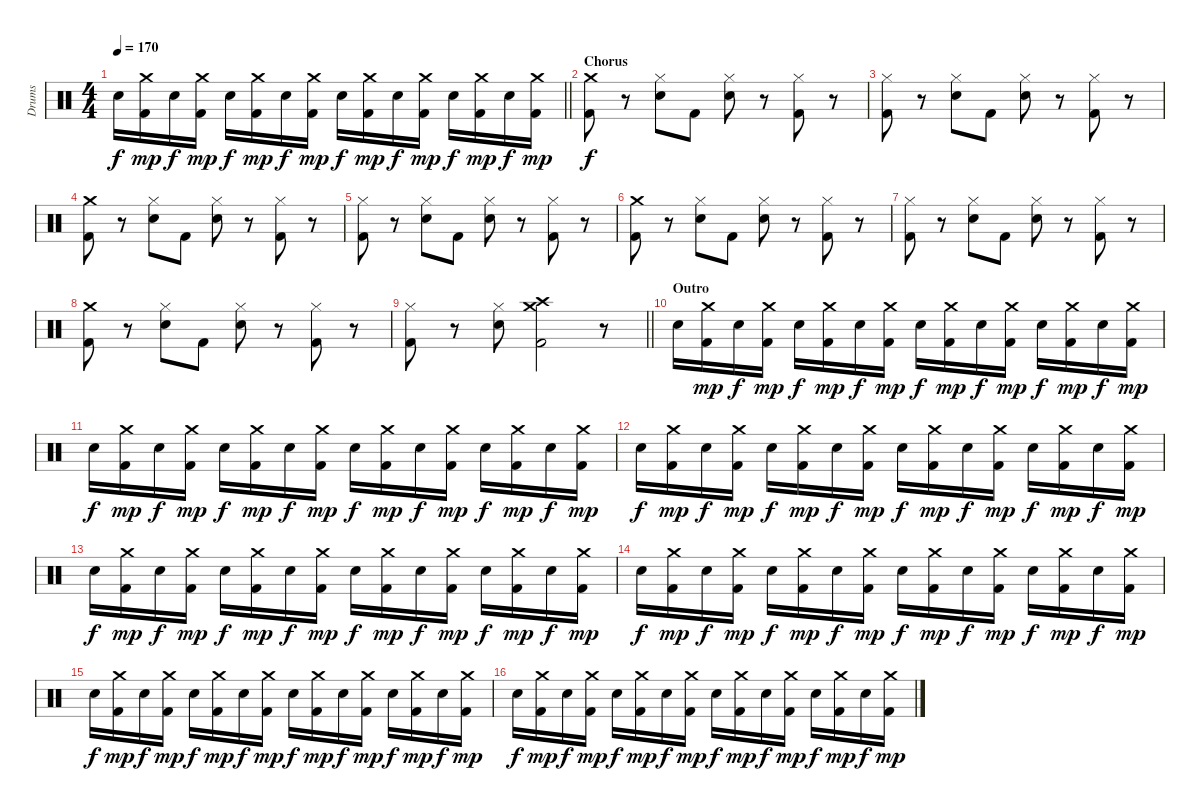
\track ("Drums" "Drums") {instrument percussion}
\staff {score}
\articulation defaults
\ts (4 4)
\tempo 170
\clef neutral
\barLineRight lightlight
\ks c "Snare (hit) 2".16{dy f}
("Kick (hit) 2" "Crash medium (hit)").16{dy mp} "Snare (hit) 2".16{dy f} ("Kick (hit) 2" "Crash medium (hit)").16{dy mp} "Snare (hit) 2".16{dy f} ("Kick (hit) 2" "Crash medium (hit)").16{dy mp} "Snare (hit) 2".16{dy f} ("Kick (hit) 2" "Crash medium (hit)").16{dy mp} "Snare (hit) 2".16{dy f} ("Kick (hit) 2" "Crash medium (hit)").16{dy mp} "Snare (hit) 2".16{dy f} ("Kick (hit) 2" "Crash medium (hit)").16{dy mp} "Snare (hit) 2".16{dy f} ("Kick (hit) 2" "Crash medium (hit)").16{dy mp} "Snare (hit) 2".16{dy f} ("Kick (hit) 2" "Crash medium (hit)").16{dy mp} |
\section ("" "Chorus")
("Kick (hit) 2" "Crash medium (hit)").8{dy f} r.8 ("Snare (hit) 2" "Hi-Hat (closed)").8 "Kick (hit) 2".8 ("Snare (hit) 2" "Hi-Hat (closed)").8 r.8 ("Kick (hit) 2" "Hi-Hat (closed)").8 r.8 |
("Kick (hit) 2" "Hi-Hat (closed)").8 r.8 ("Snare (hit) 2" "Hi-Hat (closed)").8 "Kick (hit) 2".8 ("Snare (hit) 2" "Hi-Hat (closed)").8 r.8 ("Kick (hit) 2" "Hi-Hat (closed)").8 r.8 |
("Kick (hit) 2" "Crash medium (hit)").8 r.8 ("Snare (hit) 2" "Hi-Hat (closed)").8 "Kick (hit) 2".8 ("Snare (hit) 2" "Hi-Hat (closed)").8 r.8 ("Kick (hit) 2" "Hi-Hat (closed)").8 r.8 |
("Kick (hit) 2" "Hi-Hat (closed)").8 r.8 ("Snare (hit) 2" "Hi-Hat (closed)").8 "Kick (hit) 2".8 ("Snare (hit) 2" "Hi-Hat (closed)").8 r.8 ("Kick (hit) 2" "Hi-Hat (closed)").8 r.8 |
("Kick (hit) 2" "Crash medium (hit)").8 r.8 ("Snare (hit) 2" "Hi-Hat (closed)").8 "Kick (hit) 2".8 ("Snare (hit) 2" "Hi-Hat (closed)").8 r.8 ("Kick (hit) 2" "Hi-Hat (closed)").8 r.8 |
("Kick (hit) 2" "Hi-Hat (closed)").8 r.8 ("Snare (hit) 2" "Hi-Hat (closed)").8 "Kick (hit) 2".8 ("Snare (hit) 2" "Hi-Hat (closed)").8 r.8 ("Kick (hit) 2" "Hi-Hat (closed)").8 r.8 |
("Kick (hit) 2" "Crash medium (hit)").8 r.8 ("Snare (hit) 2" "Hi-Hat (closed)").8 "Kick (hit) 2".8 ("Snare (hit) 2" "Hi-Hat (closed)").8 r.8 ("Kick (hit) 2" "Hi-Hat (closed)").8 r.8 |
\barLineRight lightlight
("Kick (hit) 2" "Hi-Hat (closed)").8 r.8 ("Snare (hit) 2" "Hi-Hat (closed)").8 ("Kick (hit) 2" "Crash medium (hit)" "Crash high (hit)").2 r.8 |
\section ("" "Outro")
"Snare (hit) 2".16 ("Kick (hit) 2" "Crash medium (hit)").16{dy mp} "Snare (hit) 2".16{dy f} ("Kick (hit) 2" "Crash medium (hit)").16{dy mp} "Snare (hit) 2".16{dy f} ("Kick (hit) 2" "Crash medium (hit)").16{dy mp} "Snare (hit) 2".16{dy f} ("Kick (hit) 2" "Crash medium (hit)").16{dy mp} "Snare (hit) 2".16{dy f} ("Kick (hit) 2" "Crash medium (hit)").16{dy mp} "Snare (hit) 2".16{dy f} ("Kick (hit) 2" "Crash medium (hit)").16{dy mp} "Snare (hit) 2".16{dy f} ("Kick (hit) 2" "Crash medium (hit)").16{dy mp} "Snare (hit) 2".16{dy f} ("Kick (hit) 2" "Crash medium (hit)").16{dy mp} |
"Snare (hit) 2".16{dy f} ("Kick (hit) 2" "Crash medium (hit)").16{dy mp} "Snare (hit) 2".16{dy f} ("Kick (hit) 2" "Crash medium (hit)").16{dy mp} "Snare (hit) 2".16{dy f} ("Kick (hit) 2" "Crash medium (hit)").16{dy mp} "Snare (hit) 2".16{dy f} ("Kick (hit) 2" "Crash medium (hit)").16{dy mp} "Snare (hit) 2".16{dy f} ("Kick (hit) 2" "Crash medium (hit)").16{dy mp} "Snare (hit) 2".16{dy f} ("Kick (hit) 2" "Crash medium (hit)").16{dy mp} "Snare (hit) 2".16{dy f} ("Kick (hit) 2" "Crash medium (hit)").16{dy mp} "Snare (hit) 2".16{dy f} ("Kick (hit) 2" "Crash medium (hit)").16{dy mp} |
"Snare (hit) 2".16{dy f} ("Kick (hit) 2" "Crash medium (hit)").16{dy mp} "Snare (hit) 2".16{dy f} ("Kick (hit) 2" "Crash medium (hit)").16{dy mp} "Snare (hit) 2".16{dy f} ("Kick (hit) 2" "Crash medium (hit)").16{dy mp} "Snare (hit) 2".16{dy f} ("Kick (hit) 2" "Crash medium (hit)").16{dy mp} "Snare (hit) 2".16{dy f} ("Kick (hit) 2" "Crash medium (hit)").16{dy mp} "Snare (hit) 2".16{dy f} ("Kick (hit) 2" "Crash medium (hit)").16{dy mp} "Snare (hit) 2".16{dy f} ("Kick (hit) 2" "Crash medium (hit)").16{dy mp} "Snare (hit) 2".16{dy f} ("Kick (hit) 2" "Crash medium (hit)").16{dy mp} |
"Snare (hit) 2".16{dy f} ("Kick (hit) 2" "Crash medium (hit)").16{dy mp} "Snare (hit) 2".16{dy f} ("Kick (hit) 2" "Crash medium (hit)").16{dy mp} "Snare (hit) 2".16{dy f} ("Kick (hit) 2" "Crash medium (hit)").16{dy mp} "Snare (hit) 2".16{dy f} ("Kick (hit) 2" "Crash medium (hit)").16{dy mp} "Snare (hit) 2".16{dy f} ("Kick (hit) 2" "Crash medium (hit)").16{dy mp} "Snare (hit) 2".16{dy f} ("Kick (hit) 2" "Crash medium (hit)").16{dy mp} "Snare (hit) 2".16{dy f} ("Kick (hit) 2" "Crash medium (hit)").16{dy mp} "Snare (hit) 2".16{dy f} ("Kick (hit) 2" "Crash medium (hit)").16{dy mp} |
"Snare (hit) 2".16{dy f} ("Kick (hit) 2" "Crash medium (hit)").16{dy mp} "Snare (hit) 2".16{dy f} ("Kick (hit) 2" "Crash medium (hit)").16{dy mp} "Snare (hit) 2".16{dy f} ("Kick (hit) 2" "Crash medium (hit)").16{dy mp} "Snare (hit) 2".16{dy f} ("Kick (hit) 2" "Crash medium (hit)").16{dy mp} "Snare (hit) 2".16{dy f} ("Kick (hit) 2" "Crash medium (hit)").16{dy mp} "Snare (hit) 2".16{dy f} ("Kick (hit) 2" "Crash medium (hit)").16{dy mp} "Snare (hit) 2".16{dy f} ("Kick (hit) 2" "Crash medium (hit)").16{dy mp} "Snare (hit) 2".16{dy f} ("Kick (hit) 2" "Crash medium (hit)").16{dy mp} |
"Snare (hit) 2".16{dy f} ("Kick (hit) 2" "Crash medium (hit)").16{dy mp} "Snare (hit) 2".16{dy f} ("Kick (hit) 2" "Crash medium (hit)").16{dy mp} "Snare (hit) 2".16{dy f} ("Kick (hit) 2" "Crash medium (hit)").16{dy mp} "Snare (hit) 2".16{dy f} ("Kick (hit) 2" "Crash medium (hit)").16{dy mp} "Snare (hit) 2".16{dy f} ("Kick (hit) 2" "Crash medium (hit)").16{dy mp} "Snare (hit) 2".16{dy f} ("Kick (hit) 2" "Crash medium (hit)").16{dy mp} "Snare (hit) 2".16{dy f} ("Kick (hit) 2" "Crash medium (hit)").16{dy mp} "Snare (hit) 2".16{dy f} ("Kick (hit) 2" "Crash medium (hit)").16{dy mp} |
"Snare (hit) 2".16{dy f} ("Kick (hit) 2" "Crash medium (hit)").16{dy mp} "Snare (hit) 2".16{dy f} ("Kick (hit) 2" "Crash medium (hit)").16{dy mp} "Snare (hit) 2".16{dy f} ("Kick (hit) 2" "Crash medium (hit)").16{dy mp} "Snare (hit) 2".16{dy f} ("Kick (hit) 2" "Crash medium (hit)").16{dy mp} "Snare (hit) 2".16{dy f} ("Kick (hit) 2" "Crash medium (hit)").16{dy mp} "Snare (hit) 2".16{dy f} ("Kick (hit) 2" "Crash medium (hit)").16{dy mp} "Snare (hit) 2".16{dy f} ("Kick (hit) 2" "Crash medium (hit)").16{dy mp} "Snare (hit) 2".16{dy f} ("Kick (hit) 2" "Crash medium (hit)").16{dy mp}
